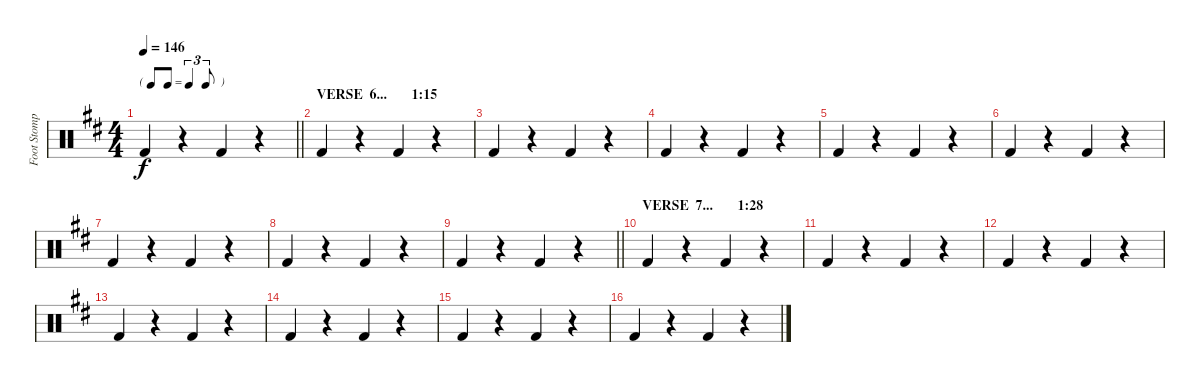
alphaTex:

\track ("Foot Stomp" "Foot Stomp") {instrument percussion}
\staff {score}
\articulation defaults
\ts (4 4)
\tf triplet8th
\tempo 146
\clef neutral
\barLineRight lightlight
\ks d "Kick (hit) 2".4{dy f}
r.4 "Kick (hit) 2".4 r.4 |
\section ("" "VERSE  6...       1:15")
"Kick (hit) 2".4 r.4 "Kick (hit) 2".4 r.4 |
"Kick (hit) 2".4 r.4 "Kick (hit) 2".4 r.4 |
"Kick (hit) 2".4 r.4 "Kick (hit) 2".4 r.4 |
"Kick (hit) 2".4 r.4 "Kick (hit) 2".4 r.4 |
"Kick (hit) 2".4 r.4 "Kick (hit) 2".4 r.4 |
"Kick (hit) 2".4 r.4 "Kick (hit) 2".4 r.4 |
"Kick (hit) 2".4 r.4 "Kick (hit) 2".4 r.4 |
\barLineRight lightlight "Kick (hit) 2".4
r.4 "Kick (hit) 2".4 r.4 |
\section ("" "VERSE  7...       1:28")
"Kick (hit) 2".4 r.4 "Kick (hit) 2".4 r.4 |
"Kick (hit) 2".4 r.4 "Kick (hit) 2".4 r.4 |
"Kick (hit) 2".4 r.4 "Kick (hit) 2".4 r.4 |
"Kick (hit) 2".4 r.4 "Kick (hit) 2".4 r.4 |
"Kick (hit) 2".4 r.4 "Kick (hit) 2".4 r.4 |
"Kick (hit) 2".4 r.4 "Kick (hit) 2".4 r.4 |
"Kick (hit) 2".4 r.4 "Kick (hit) 2".4 r.4
